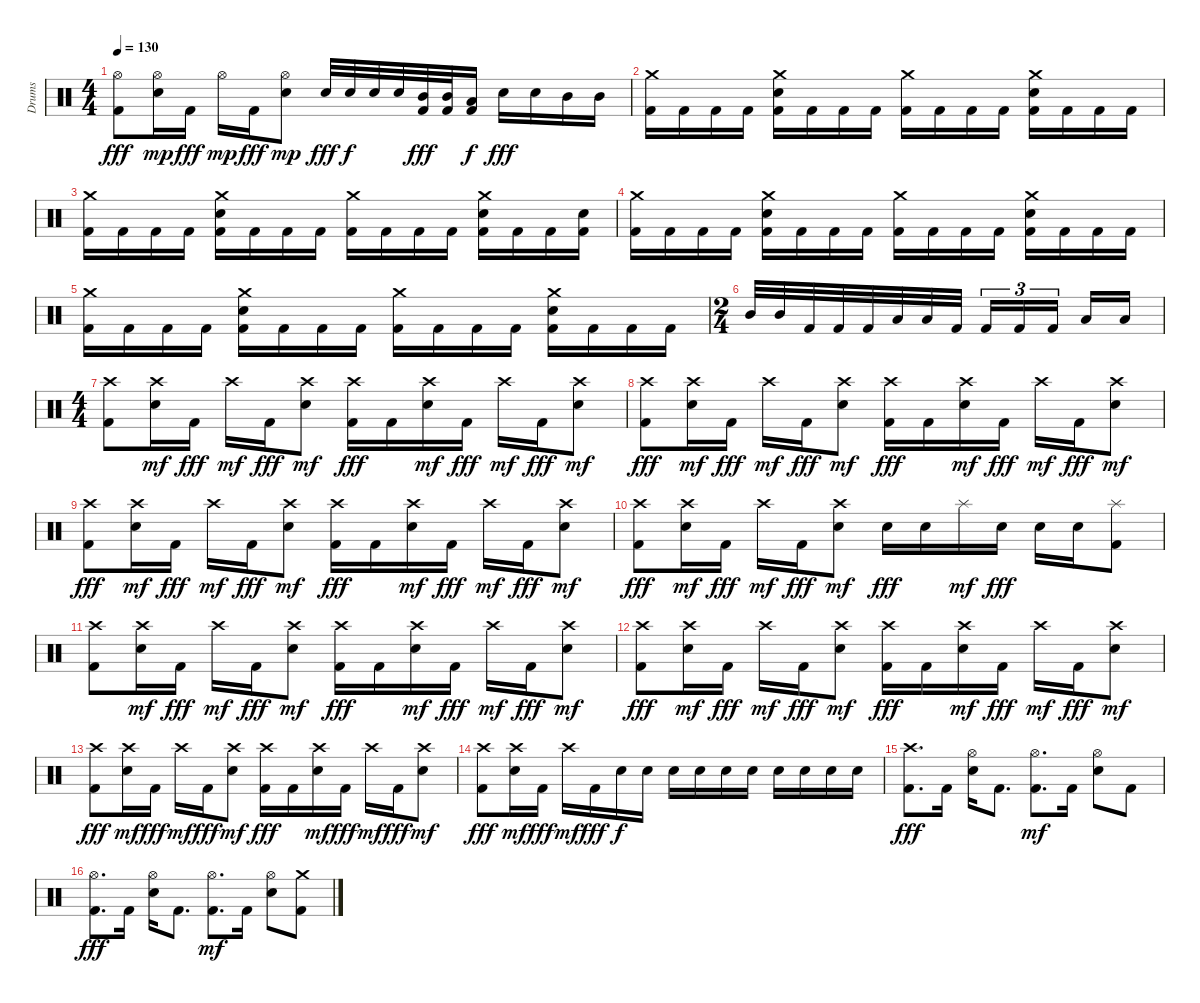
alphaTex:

\track ("Drums" "Drums") {instrument percussion}
\staff {score}
\articulation defaults
\ts (4 4)
\tempo 130
\clef neutral
\ks c
("Hi-Hat (open)" "Kick (hit) 2").8{dy fff} ("Hi-Hat (open)" "Electric Snare (hit)").16{dy mp} "Kick (hit) 2".16{dy fff} "Hi-Hat (open)".16{dy mp} "Kick (hit) 2".16{dy fff} ("Hi-Hat (open)" "Electric Snare (hit)").8{dy mp} "Electric Snare (hit)".32{dy fff} "Electric Snare (hit)".32{dy f} "Electric Snare (hit)".32 "Electric Snare (hit)".32 ("Mid Tom (hit)" "Kick (hit) 2").32{dy fff} ("Mid Tom (hit)" "Kick (hit) 2").32 ("Low Tom (hit)" "Kick (hit) 2").16{dy f} "Electric Snare (hit)".16{dy fff} "Electric Snare (hit)".16 "Mid Tom (hit)".16 "Mid Tom (hit)".16 |
("Crash medium (hit)" "Kick (hit) 2").16 "Kick (hit) 2".16 "Kick (hit) 2".16 "Kick (hit) 2".16 ("Crash medium (hit)" "Electric Snare (hit)" "Kick (hit) 2").16 "Kick (hit) 2".16 "Kick (hit) 2".16 "Kick (hit) 2".16 ("Crash medium (hit)" "Kick (hit) 2").16 "Kick (hit) 2".16 "Kick (hit) 2".16 "Kick (hit) 2".16 ("Crash medium (hit)" "Electric Snare (hit)" "Kick (hit) 2").16 "Kick (hit) 2".16 "Kick (hit) 2".16 "Kick (hit) 2".16 |
("Crash medium (hit)" "Kick (hit) 2").16 "Kick (hit) 2".16 "Kick (hit) 2".16 "Kick (hit) 2".16 ("Crash medium (hit)" "Electric Snare (hit)" "Kick (hit) 2").16 "Kick (hit) 2".16 "Kick (hit) 2".16 "Kick (hit) 2".16 ("Crash medium (hit)" "Kick (hit) 2").16 "Kick (hit) 2".16 "Kick (hit) 2".16 "Kick (hit) 2".16 ("Crash medium (hit)" "Electric Snare (hit)" "Kick (hit) 2").16 "Kick (hit) 2".16 "Kick (hit) 2".16 ("Electric Snare (hit)" "Kick (hit) 2").16 |
("Crash medium (hit)" "Kick (hit) 2").16 "Kick (hit) 2".16 "Kick (hit) 2".16 "Kick (hit) 2".16 ("Crash medium (hit)" "Electric Snare (hit)" "Kick (hit) 2").16 "Kick (hit) 2".16 "Kick (hit) 2".16 "Kick (hit) 2".16 ("Crash medium (hit)" "Kick (hit) 2").16 "Kick (hit) 2".16 "Kick (hit) 2".16 "Kick (hit) 2".16 ("Crash medium (hit)" "Electric Snare (hit)" "Kick (hit) 2").16 "Kick (hit) 2".16 "Kick (hit) 2".16 "Kick (hit) 2".16 |
("Crash medium (hit)" "Kick (hit) 2").16 "Kick (hit) 2".16 "Kick (hit) 2".16 "Kick (hit) 2".16 ("Crash medium (hit)" "Electric Snare (hit)" "Kick (hit) 2").16 "Kick (hit) 2".16 "Kick (hit) 2".16 "Kick (hit) 2".16 ("Crash medium (hit)" "Kick (hit) 2").16 "Kick (hit) 2".16 "Kick (hit) 2".16 "Kick (hit) 2".16 ("Crash medium (hit)" "Electric Snare (hit)" "Kick (hit) 2").16 "Kick (hit) 2".16 "Kick (hit) 2".16 "Kick (hit) 2".16 |
\ts (2 4)
"Mid Tom (hit)".32 "Mid Tom (hit)".32 "Kick (hit) 2".32 "Kick (hit) 2".32 "Kick (hit) 2".32 "Low Tom (hit)".32 "Low Tom (hit)".32 "Kick (hit) 2".32 "Kick (hit) 2".16{tu (3 2)} "Kick (hit) 2".16{tu (3 2)} "Kick (hit) 2".16{tu (3 2) beam splitsecondary} "Low Floor Tom (hit)".16 "Low Floor Tom (hit)".16 |
\ts (4 4)
("Crash high (hit)" "Kick (hit) 2").8 ("Crash high (hit)" "Electric Snare (hit)").16{dy mf} "Kick (hit) 2".16{dy fff} "Crash high (hit)".16{dy mf} "Kick (hit) 2".16{dy fff} ("Crash high (hit)" "Electric Snare (hit)").8{dy mf} ("Crash high (hit)" "Kick (hit) 2").16{dy fff} "Kick (hit) 2".16 ("Crash high (hit)" "Electric Snare (hit)").16{dy mf} "Kick (hit) 2".16{dy fff} "Crash high (hit)".16{dy mf} "Kick (hit) 2".16{dy fff} ("Crash high (hit)" "Electric Snare (hit)").8{dy mf} |
("Crash high (hit)" "Kick (hit) 2").8{dy fff} ("Crash high (hit)" "Electric Snare (hit)").16{dy mf} "Kick (hit) 2".16{dy fff} "Crash high (hit)".16{dy mf} "Kick (hit) 2".16{dy fff} ("Crash high (hit)" "Electric Snare (hit)").8{dy mf} ("Crash high (hit)" "Kick (hit) 2").16{dy fff} "Kick (hit) 2".16 ("Crash high (hit)" "Electric Snare (hit)").16{dy mf} "Kick (hit) 2".16{dy fff} "Crash high (hit)".16{dy mf} "Kick (hit) 2".16{dy fff} ("Crash high (hit)" "Electric Snare (hit)").8{dy mf} |
("Crash high (hit)" "Kick (hit) 2").8{dy fff} ("Crash high (hit)" "Electric Snare (hit)").16{dy mf} "Kick (hit) 2".16{dy fff} "Crash high (hit)".16{dy mf} "Kick (hit) 2".16{dy fff} ("Crash high (hit)" "Electric Snare (hit)").8{dy mf} ("Crash high (hit)" "Kick (hit) 2").16{dy fff} "Kick (hit) 2".16 ("Crash high (hit)" "Electric Snare (hit)").16{dy mf} "Kick (hit) 2".16{dy fff} "Crash high (hit)".16{dy mf} "Kick (hit) 2".16{dy fff} ("Crash high (hit)" "Electric Snare (hit)").8{dy mf} |
("Crash high (hit)" "Kick (hit) 2").8{dy fff} ("Crash high (hit)" "Electric Snare (hit)").16{dy mf} "Kick (hit) 2".16{dy fff} "Crash high (hit)".16{dy mf} "Kick (hit) 2".16{dy fff} ("Crash high (hit)" "Electric Snare (hit)").8{dy mf} "Electric Snare (hit)".16{dy fff} "Electric Snare (hit)".16 "Splash (hit)".16{dy mf} "Electric Snare (hit)".16{dy fff} "Electric Snare (hit)".16 "Electric Snare (hit)".16 ("Splash (hit)" "Kick (hit) 2").8 |
("Crash high (hit)" "Kick (hit) 2").8 ("Crash high (hit)" "Electric Snare (hit)").16{dy mf} "Kick (hit) 2".16{dy fff} "Crash high (hit)".16{dy mf} "Kick (hit) 2".16{dy fff} ("Crash high (hit)" "Electric Snare (hit)").8{dy mf} ("Crash high (hit)" "Kick (hit) 2").16{dy fff} "Kick (hit) 2".16 ("Crash high (hit)" "Electric Snare (hit)").16{dy mf} "Kick (hit) 2".16{dy fff} "Crash high (hit)".16{dy mf} "Kick (hit) 2".16{dy fff} ("Crash high (hit)" "Electric Snare (hit)").8{dy mf} |
("Crash high (hit)" "Kick (hit) 2").8{dy fff} ("Crash high (hit)" "Electric Snare (hit)").16{dy mf} "Kick (hit) 2".16{dy fff} "Crash high (hit)".16{dy mf} "Kick (hit) 2".16{dy fff} ("Crash high (hit)" "Electric Snare (hit)").8{dy mf} ("Crash high (hit)" "Kick (hit) 2").16{dy fff} "Kick (hit) 2".16 ("Crash high (hit)" "Electric Snare (hit)").16{dy mf} "Kick (hit) 2".16{dy fff} "Crash high (hit)".16{dy mf} "Kick (hit) 2".16{dy fff} ("Crash high (hit)" "Electric Snare (hit)").8{dy mf} |
("Crash high (hit)" "Kick (hit) 2").8{dy fff} ("Crash high (hit)" "Electric Snare (hit)").16{dy mf} "Kick (hit) 2".16{dy fff} "Crash high (hit)".16{dy mf} "Kick (hit) 2".16{dy fff} ("Crash high (hit)" "Electric Snare (hit)").8{dy mf} ("Crash high (hit)" "Kick (hit) 2").16{dy fff} "Kick (hit) 2".16 ("Crash high (hit)" "Electric Snare (hit)").16{dy mf} "Kick (hit) 2".16{dy fff} "Crash high (hit)".16{dy mf} "Kick (hit) 2".16{dy fff} ("Crash high (hit)" "Electric Snare (hit)").8{dy mf} |
("Crash high (hit)" "Kick (hit) 2").8{dy fff} ("Crash high (hit)" "Electric Snare (hit)").16{dy mf} "Kick (hit) 2".16{dy fff} "Crash high (hit)".16{dy mf} "Kick (hit) 2".16{dy fff} "Electric Snare (hit)".16{dy f} "Electric Snare (hit)".16 "Electric Snare (hit)".16 "Electric Snare (hit)".16 "Electric Snare (hit)".16 "Electric Snare (hit)".16 "Electric Snare (hit)".16 "Electric Snare (hit)".16 "Electric Snare (hit)".16 "Electric Snare (hit)".16 |
("Crash high (hit)" "Kick (hit) 2").8{d dy fff} "Kick (hit) 2".16 ("Hi-Hat (open)" "Electric Snare (hit)").16 "Kick (hit) 2".8{d} ("Hi-Hat (open)" "Kick (hit) 2").8{d dy mf} "Kick (hit) 2".16 ("Hi-Hat (open)" "Electric Snare (hit)").8 "Kick (hit) 2".8 |
("Hi-Hat (open)" "Kick (hit) 2").8{d dy fff} "Kick (hit) 2".16 ("Hi-Hat (open)" "Electric Snare (hit)").16 "Kick (hit) 2".8{d} ("Hi-Hat (open)" "Kick (hit) 2").8{d dy mf} "Kick (hit) 2".16 ("Hi-Hat (open)" "Electric Snare (hit)").8 ("Crash medium (hit)" "Kick (hit) 2").8
